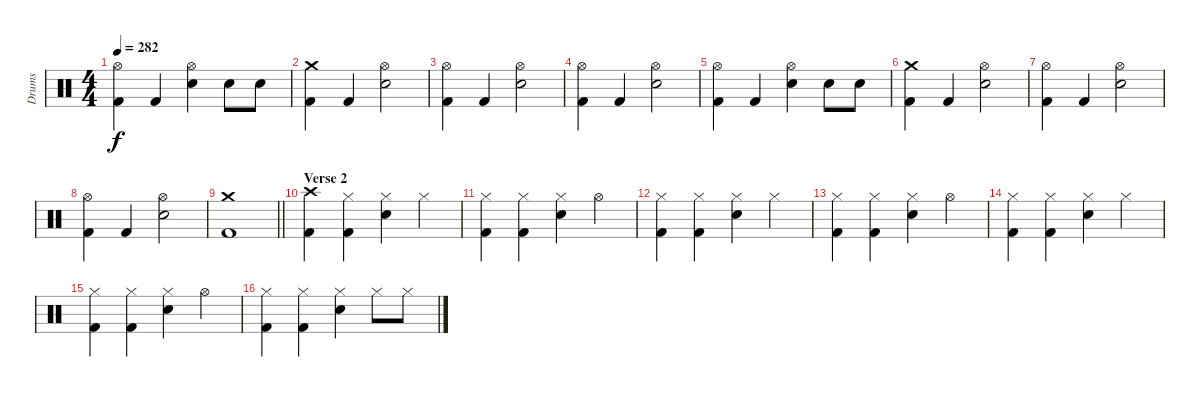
\track ("Drums" "Drums") {instrument percussion}
\staff {score}
\articulation defaults
\ts (4 4)
\tempo 282
\clef neutral
\ks c
("Hi-Hat (open)" "Kick (hit) 2").4{dy f} "Kick (hit) 2".4 ("Hi-Hat (open)" "Electric Snare (hit)").4 "Electric Snare (hit)".8 "Electric Snare (hit)".8 |
("Crash medium (hit)" "Kick (hit) 2").4 "Kick (hit) 2".4 ("Hi-Hat (open)" "Electric Snare (hit)").2 |
("Hi-Hat (open)" "Kick (hit) 2").4 "Kick (hit) 2".4 ("Hi-Hat (open)" "Electric Snare (hit)").2 |
("Hi-Hat (open)" "Kick (hit) 2").4 "Kick (hit) 2".4 ("Hi-Hat (open)" "Electric Snare (hit)").2 |
("Hi-Hat (open)" "Kick (hit) 2").4 "Kick (hit) 2".4 ("Hi-Hat (open)" "Electric Snare (hit)").4 "Electric Snare (hit)".8 "Electric Snare (hit)".8 |
("Crash medium (hit)" "Kick (hit) 2").4 "Kick (hit) 2".4 ("Hi-Hat (open)" "Electric Snare (hit)").2 |
("Hi-Hat (open)" "Kick (hit) 2").4 "Kick (hit) 2".4 ("Hi-Hat (open)" "Electric Snare (hit)").2 |
("Hi-Hat (open)" "Kick (hit) 2").4 "Kick (hit) 2".4 ("Hi-Hat (open)" "Electric Snare (hit)").2 |
\barLineRight lightlight
("Crash medium (hit)" "Kick (hit) 2").1 |
\section ("" "Verse 2")
("Crash high (hit)" "Kick (hit) 2").4 ("Hi-Hat (closed)" "Kick (hit) 2").4 ("Hi-Hat (closed)" "Electric Snare (hit)").4 "Hi-Hat (closed)".4 |
("Hi-Hat (closed)" "Kick (hit) 2").4 ("Hi-Hat (closed)" "Kick (hit) 2").4 ("Hi-Hat (closed)" "Electric Snare (hit)").4 "Hi-Hat (open)".4 |
("Hi-Hat (closed)" "Kick (hit) 2").4 ("Hi-Hat (closed)" "Kick (hit) 2").4 ("Hi-Hat (closed)" "Electric Snare (hit)").4 "Hi-Hat (closed)".4 |
("Hi-Hat (closed)" "Kick (hit) 2").4 ("Hi-Hat (closed)" "Kick (hit) 2").4 ("Hi-Hat (closed)" "Electric Snare (hit)").4 "Hi-Hat (open)".4 |
("Hi-Hat (closed)" "Kick (hit) 2").4 ("Hi-Hat (closed)" "Kick (hit) 2").4 ("Hi-Hat (closed)" "Electric Snare (hit)").4 "Hi-Hat (closed)".4 |
("Hi-Hat (closed)" "Kick (hit) 2").4 ("Hi-Hat (closed)" "Kick (hit) 2").4 ("Hi-Hat (closed)" "Electric Snare (hit)").4 "Hi-Hat (open)".4 |
("Hi-Hat (closed)" "Kick (hit) 2").4 ("Hi-Hat (closed)" "Kick (hit) 2").4 ("Hi-Hat (closed)" "Electric Snare (hit)").4 "Hi-Hat (closed)".8 "Hi-Hat (closed)".8
